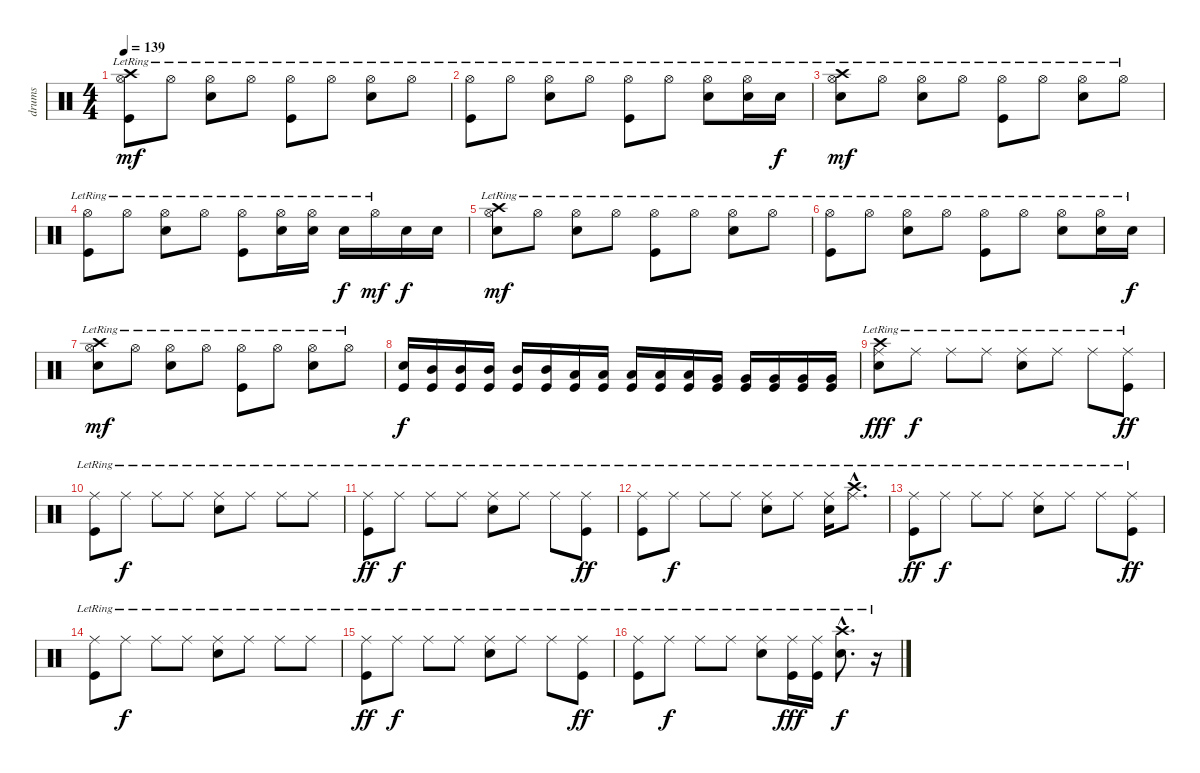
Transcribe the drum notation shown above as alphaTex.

\track ("drums" "drums") {instrument percussion}
\staff {score}
\articulation defaults
\ts (4 4)
\tempo 139
\clef neutral
\ks c
("Crash high (hit)"{lr} "Kick (hit)"{lr} "Hi-Hat (open)"{lr}).8{dy mf} "Hi-Hat (open)"{lr}.8 ("Electric Snare (hit)"{lr} "Hi-Hat (open)"{lr}).8 "Hi-Hat (open)"{lr}.8 ("Kick (hit)"{lr} "Hi-Hat (open)"{lr}).8 "Hi-Hat (open)"{lr}.8 ("Electric Snare (hit)"{lr} "Hi-Hat (open)"{lr}).8 "Hi-Hat (open)"{lr}.8 |
("Kick (hit)"{lr} "Hi-Hat (open)"{lr}).8 "Hi-Hat (open)"{lr}.8 ("Electric Snare (hit)"{lr} "Hi-Hat (open)"{lr}).8 "Hi-Hat (open)"{lr}.8 ("Kick (hit)"{lr} "Hi-Hat (open)"{lr}).8 "Hi-Hat (open)"{lr}.8 ("Electric Snare (hit)"{lr} "Hi-Hat (open)"{lr}).8 ("Electric Snare (hit)"{lr} "Hi-Hat (open)"{lr}).16 "Electric Snare (hit)"{lr}.16{dy f} |
("Crash high (hit)"{lr} "Electric Snare (hit)"{lr} "Hi-Hat (open)"{lr}).8{dy mf} "Hi-Hat (open)"{lr}.8 ("Electric Snare (hit)"{lr} "Hi-Hat (open)"{lr}).8 "Hi-Hat (open)"{lr}.8 ("Kick (hit)"{lr} "Hi-Hat (open)"{lr}).8 "Hi-Hat (open)"{lr}.8 ("Electric Snare (hit)"{lr} "Hi-Hat (open)"{lr}).8 "Hi-Hat (open)"{lr}.8 |
("Kick (hit)"{lr} "Hi-Hat (open)"{lr}).8 "Hi-Hat (open)"{lr}.8 ("Electric Snare (hit)"{lr} "Hi-Hat (open)"{lr}).8 "Hi-Hat (open)"{lr}.8 ("Kick (hit)"{lr} "Hi-Hat (open)"{lr}).8 ("Electric Snare (hit)" "Hi-Hat (open)"{lr}).16 ("Electric Snare (hit)"{lr} "Hi-Hat (open)"{lr}).16 "Electric Snare (hit)"{lr}.16{dy f} "Hi-Hat (open)"{lr}.16{dy mf} "Electric Snare (hit)".16{dy f} "Electric Snare (hit)".16 |
("Crash high (hit)"{lr} "Electric Snare (hit)"{lr} "Hi-Hat (open)"{lr}).8{dy mf} "Hi-Hat (open)"{lr}.8 ("Electric Snare (hit)"{lr} "Hi-Hat (open)"{lr}).8 "Hi-Hat (open)"{lr}.8 ("Kick (hit)"{lr} "Hi-Hat (open)"{lr}).8 "Hi-Hat (open)"{lr}.8 ("Electric Snare (hit)"{lr} "Hi-Hat (open)"{lr}).8 "Hi-Hat (open)"{lr}.8 |
("Kick (hit)"{lr} "Hi-Hat (open)"{lr}).8 "Hi-Hat (open)"{lr}.8 ("Electric Snare (hit)"{lr} "Hi-Hat (open)"{lr}).8 "Hi-Hat (open)"{lr}.8 ("Kick (hit)"{lr} "Hi-Hat (open)"{lr}).8 "Hi-Hat (open)"{lr}.8 ("Electric Snare (hit)"{lr} "Hi-Hat (open)"{lr}).8 ("Electric Snare (hit)"{lr} "Hi-Hat (open)"{lr}).16 "Electric Snare (hit)"{lr}.16{dy f} |
("Crash high (hit)"{lr} "Electric Snare (hit)"{lr} "Hi-Hat (open)"{lr}).8{dy mf} "Hi-Hat (open)"{lr}.8 ("Electric Snare (hit)"{lr} "Hi-Hat (open)"{lr}).8 "Hi-Hat (open)"{lr}.8 ("Kick (hit)"{lr} "Hi-Hat (open)"{lr}).8 "Hi-Hat (open)"{lr}.8 ("Electric Snare (hit)"{lr} "Hi-Hat (open)"{lr}).8 "Hi-Hat (open)"{lr}.8 |
("Electric Snare (hit)" "Kick (hit)").16{dy f} ("Mid Tom (hit)" "Kick (hit)").16 ("Mid Tom (hit)" "Kick (hit)").16 ("Mid Tom (hit)" "Kick (hit)").16 ("Mid Tom (hit)" "Kick (hit)").16 ("Mid Tom (hit)" "Kick (hit)").16 ("Low Tom (hit)" "Kick (hit)").16 ("Low Tom (hit)" "Kick (hit)").16 ("Low Tom (hit)" "Kick (hit)").16 ("Low Tom (hit)" "Kick (hit)").16 ("Low Tom (hit)" "Kick (hit)").16 ("Very Low Tom (hit)" "Kick (hit)").16 ("Very Low Tom (hit)" "Kick (hit)").16 ("Very Low Tom (hit)" "Kick (hit)").16 ("Very Low Tom (hit)" "Kick (hit)").16 ("Very Low Tom (hit)" "Kick (hit)").16 |
("Ride (middle)"{lr} "Electric Snare (hit)"{lr} "Crash high (hit)").8{dy fff} "Ride (middle)"{lr}.8{dy f} "Ride (middle)"{lr}.8 "Ride (middle)"{lr}.8 ("Ride (middle)"{lr} "Electric Snare (hit)"{lr}).8 "Ride (middle)"{lr}.8 "Ride (middle)"{lr}.8 ("Ride (middle)"{lr} "Kick (hit)"{lr}).8{dy ff} |
("Ride (middle)"{lr} "Kick (hit)"{lr}).8 "Ride (middle)"{lr}.8{dy f} "Ride (middle)"{lr}.8 "Ride (middle)"{lr}.8 ("Ride (middle)"{lr} "Electric Snare (hit)"{lr}).8 "Ride (middle)"{lr}.8 "Ride (middle)"{lr}.8 "Ride (middle)"{lr}.8 |
("Ride (middle)"{lr} "Kick (hit)"{lr}).8{dy ff} "Ride (middle)"{lr}.8{dy f} "Ride (middle)"{lr}.8 "Ride (middle)"{lr}.8 ("Ride (middle)"{lr} "Electric Snare (hit)"{lr}).8 "Ride (middle)"{lr}.8 "Ride (middle)"{lr}.8 ("Ride (middle)"{lr} "Kick (hit)"{lr}).8{dy ff} |
("Ride (middle)"{lr} "Kick (hit)"{lr}).8 "Ride (middle)"{lr}.8{dy f} "Ride (middle)"{lr}.8 "Ride (middle)"{lr}.8 ("Ride (middle)"{lr} "Electric Snare (hit)"{lr}).8 "Ride (middle)"{lr}.8 ("Ride (middle)"{lr} "Electric Snare (hit)"{lr}).16 ("Crash high (hit)"{hac lr} "Ride (middle)"{hac lr}).8{d} |
("Ride (middle)"{lr} "Kick (hit)"{lr}).8{dy ff} "Ride (middle)"{lr}.8{dy f} "Ride (middle)"{lr}.8 "Ride (middle)"{lr}.8 ("Ride (middle)"{lr} "Electric Snare (hit)"{lr}).8 "Ride (middle)"{lr}.8 "Ride (middle)"{lr}.8 ("Ride (middle)"{lr} "Kick (hit)"{lr}).8{dy ff} |
("Ride (middle)"{lr} "Kick (hit)"{lr}).8 "Ride (middle)"{lr}.8{dy f} "Ride (middle)"{lr}.8 "Ride (middle)"{lr}.8 ("Ride (middle)"{lr} "Electric Snare (hit)"{lr}).8 "Ride (middle)"{lr}.8 "Ride (middle)"{lr}.8 "Ride (middle)"{lr}.8 |
("Ride (middle)"{lr} "Kick (hit)"{lr}).8{dy ff} "Ride (middle)"{lr}.8{dy f} "Ride (middle)"{lr}.8 "Ride (middle)"{lr}.8 ("Ride (middle)"{lr} "Electric Snare (hit)"{lr}).8 "Ride (middle)"{lr}.8 "Ride (middle)"{lr}.8 ("Ride (middle)"{lr} "Kick (hit)"{lr}).8{dy ff} |
("Ride (middle)"{lr} "Kick (hit)"{lr}).8 "Ride (middle)"{lr}.8{dy f} "Ride (middle)"{lr}.8 "Ride (middle)"{lr}.8 ("Ride (middle)"{lr} "Electric Snare (hit)"{lr}).8 ("Ride (middle)"{lr} "Kick (hit)").16{dy fff} ("Ride (middle)"{lr} "Kick (hit)"{lr}).16 ("Crash high (hit)"{hac lr} "Electric Snare (hit)"{hac}).8{d dy f} r.16
